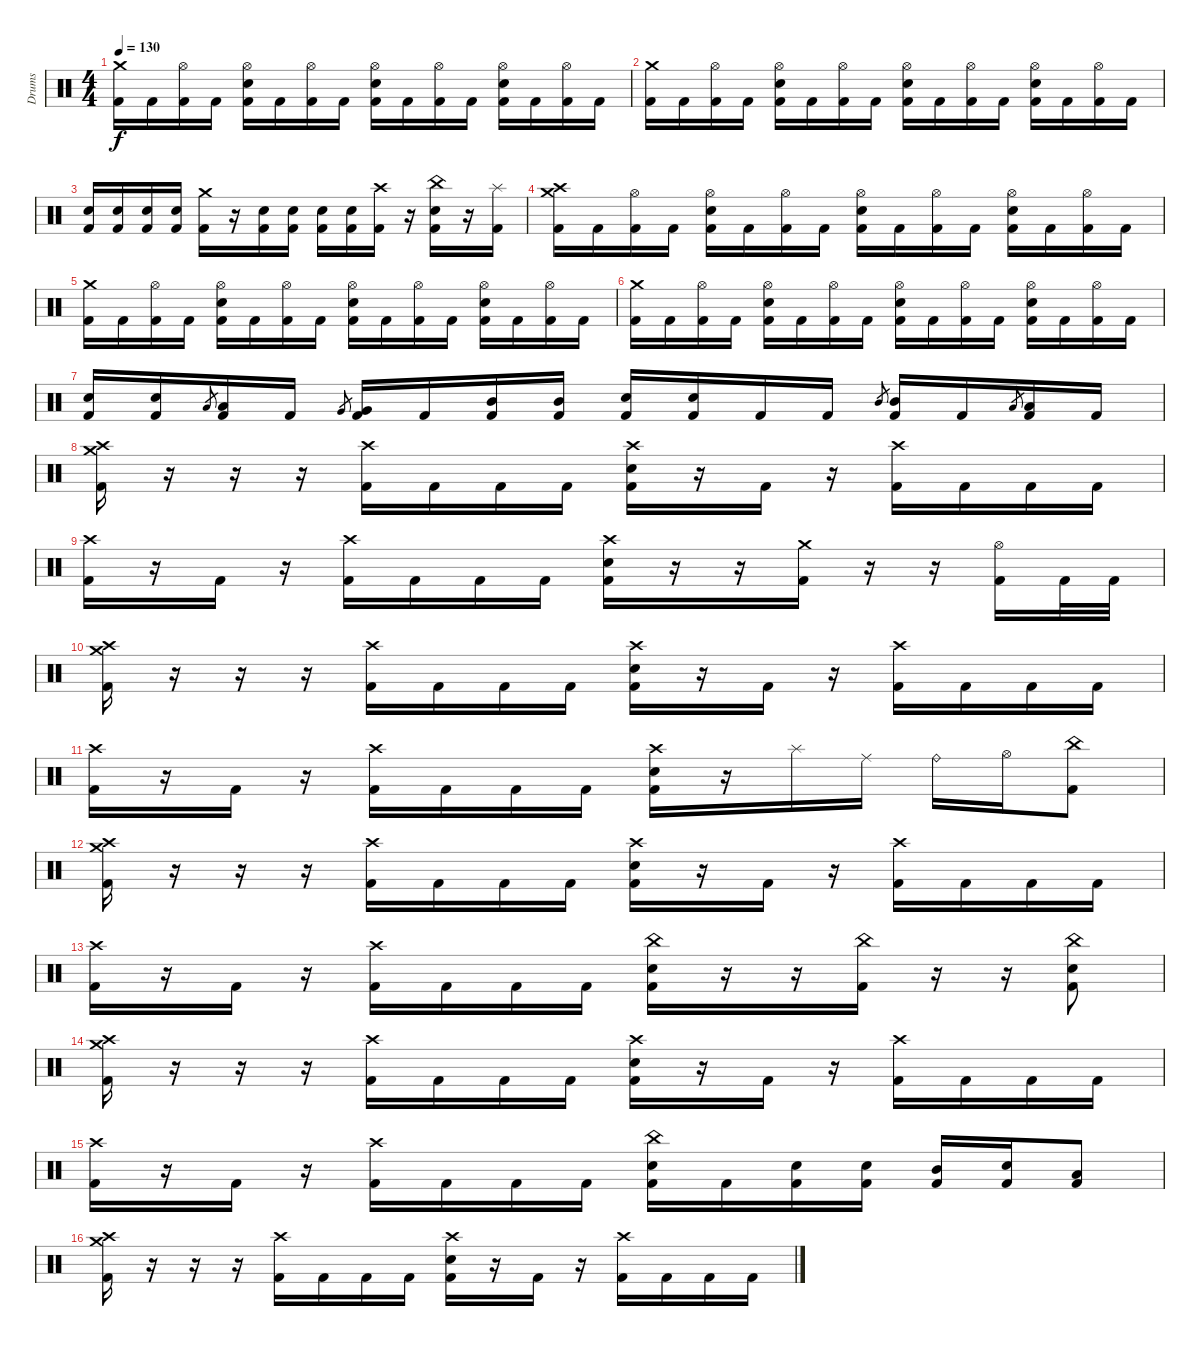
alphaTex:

\track ("Drums" "Drums") {instrument percussion}
\staff {score}
\articulation defaults
\ts (4 4)
\tempo 130
\clef neutral
\ks c
("Crash medium (hit)" "Kick (hit) 2").16{dy f} "Kick (hit) 2".16 ("Hi-Hat (open)" "Kick (hit) 2").16 "Kick (hit) 2".16 ("Hi-Hat (open)" "Electric Snare (hit)" "Kick (hit) 2").16 "Kick (hit) 2".16 ("Hi-Hat (open)" "Kick (hit) 2").16 "Kick (hit) 2".16 ("Hi-Hat (open)" "Electric Snare (hit)" "Kick (hit) 2").16 "Kick (hit) 2".16 ("Hi-Hat (open)" "Kick (hit) 2").16 "Kick (hit) 2".16 ("Hi-Hat (open)" "Electric Snare (hit)" "Kick (hit) 2").16 "Kick (hit) 2".16 ("Hi-Hat (open)" "Kick (hit) 2").16 "Kick (hit) 2".16 |
("Crash medium (hit)" "Kick (hit) 2").16 "Kick (hit) 2".16 ("Hi-Hat (open)" "Kick (hit) 2").16 "Kick (hit) 2".16 ("Hi-Hat (open)" "Electric Snare (hit)" "Kick (hit) 2").16 "Kick (hit) 2".16 ("Hi-Hat (open)" "Kick (hit) 2").16 "Kick (hit) 2".16 ("Hi-Hat (open)" "Electric Snare (hit)" "Kick (hit) 2").16 "Kick (hit) 2".16 ("Hi-Hat (open)" "Kick (hit) 2").16 "Kick (hit) 2".16 ("Hi-Hat (open)" "Electric Snare (hit)" "Kick (hit) 2").16 "Kick (hit) 2".16 ("Hi-Hat (open)" "Kick (hit) 2").16 "Kick (hit) 2".16 |
("Electric Snare (hit)" "Kick (hit) 2").16 ("Electric Snare (hit)" "Kick (hit) 2").16 ("Electric Snare (hit)" "Kick (hit) 2").16 ("Electric Snare (hit)" "Kick (hit) 2").16 ("Crash medium (hit)" "Kick (hit) 2").16 r.16 ("Electric Snare (hit)" "Kick (hit) 2").16 ("Electric Snare (hit)" "Kick (hit) 2").16 ("Electric Snare (hit)" "Kick (hit) 2").16 ("Electric Snare (hit)" "Kick (hit) 2").16 ("Crash high (hit)" "Kick (hit) 2").16 r.16 ("China (hit)" "Electric Snare (hit)" "Kick (hit) 2").16 r.16 ("Splash (hit)" "Kick (hit) 2").16 |
("Crash high (hit)" "Crash medium (hit)" "Kick (hit) 2").16 "Kick (hit) 2".16 ("Hi-Hat (open)" "Kick (hit) 2").16 "Kick (hit) 2".16 ("Hi-Hat (open)" "Electric Snare (hit)" "Kick (hit) 2").16 "Kick (hit) 2".16 ("Hi-Hat (open)" "Kick (hit) 2").16 "Kick (hit) 2".16 ("Hi-Hat (open)" "Electric Snare (hit)" "Kick (hit) 2").16 "Kick (hit) 2".16 ("Hi-Hat (open)" "Kick (hit) 2").16 "Kick (hit) 2".16 ("Hi-Hat (open)" "Electric Snare (hit)" "Kick (hit) 2").16 "Kick (hit) 2".16 ("Hi-Hat (open)" "Kick (hit) 2").16 "Kick (hit) 2".16 |
("Crash medium (hit)" "Kick (hit) 2").16 "Kick (hit) 2".16 ("Hi-Hat (open)" "Kick (hit) 2").16 "Kick (hit) 2".16 ("Hi-Hat (open)" "Electric Snare (hit)" "Kick (hit) 2").16 "Kick (hit) 2".16 ("Hi-Hat (open)" "Kick (hit) 2").16 "Kick (hit) 2".16 ("Hi-Hat (open)" "Electric Snare (hit)" "Kick (hit) 2").16 "Kick (hit) 2".16 ("Hi-Hat (open)" "Kick (hit) 2").16 "Kick (hit) 2".16 ("Hi-Hat (open)" "Electric Snare (hit)" "Kick (hit) 2").16 "Kick (hit) 2".16 ("Hi-Hat (open)" "Kick (hit) 2").16 "Kick (hit) 2".16 |
("Crash medium (hit)" "Kick (hit) 2").16 "Kick (hit) 2".16 ("Hi-Hat (open)" "Kick (hit) 2").16 "Kick (hit) 2".16 ("Hi-Hat (open)" "Electric Snare (hit)" "Kick (hit) 2").16 "Kick (hit) 2".16 ("Hi-Hat (open)" "Kick (hit) 2").16 "Kick (hit) 2".16 ("Hi-Hat (open)" "Electric Snare (hit)" "Kick (hit) 2").16 "Kick (hit) 2".16 ("Hi-Hat (open)" "Kick (hit) 2").16 "Kick (hit) 2".16 ("Hi-Hat (open)" "Electric Snare (hit)" "Kick (hit) 2").16 "Kick (hit) 2".16 ("Hi-Hat (open)" "Kick (hit) 2").16 "Kick (hit) 2".16 |
("Electric Snare (hit)" "Kick (hit) 2").16 ("Electric Snare (hit)" "Kick (hit) 2").16 "Low Tom (hit)".8{gr} ("Low Tom (hit)" "Kick (hit) 2").16 "Kick (hit) 2".16 "Very Low Tom (hit)".8{gr} ("Very Low Tom (hit)" "Kick (hit) 2").16 "Kick (hit) 2".16 ("Mid Tom (hit)" "Kick (hit) 2").16 ("Mid Tom (hit)" "Kick (hit) 2").16 ("Electric Snare (hit)" "Kick (hit) 2").16 ("Electric Snare (hit)" "Kick (hit) 2").16 "Kick (hit) 2".16 "Kick (hit) 2".16 "Mid Tom (hit)".8{gr} ("Mid Tom (hit)" "Kick (hit) 2").16 "Kick (hit) 2".16 "Low Tom (hit)".8{gr} ("Low Tom (hit)" "Kick (hit) 2").16 "Kick (hit) 2".16 |
("Crash high (hit)" "Crash medium (hit)" "Kick (hit) 2").16 r.16 r.16 r.16 ("Crash high (hit)" "Kick (hit) 2").16 "Kick (hit) 2".16 "Kick (hit) 2".16 "Kick (hit) 2".16 ("Crash high (hit)" "Electric Snare (hit)" "Kick (hit) 2").16 r.16 "Kick (hit) 2".16 r.16 ("Crash high (hit)" "Kick (hit) 2").16 "Kick (hit) 2".16 "Kick (hit) 2".16 "Kick (hit) 2".16 |
("Crash high (hit)" "Kick (hit) 2").16 r.16 "Kick (hit) 2".16 r.16 ("Crash high (hit)" "Kick (hit) 2").16 "Kick (hit) 2".16 "Kick (hit) 2".16 "Kick (hit) 2".16 ("Crash high (hit)" "Electric Snare (hit)" "Kick (hit) 2").16 r.16 r.16 ("Crash medium (hit)" "Kick (hit) 2").16 r.16 r.16 ("Hi-Hat (open)" "Kick (hit) 2").16 "Kick (hit) 2".32 "Kick (hit) 2".32 |
("Crash high (hit)" "Crash medium (hit)" "Kick (hit) 2").16 r.16 r.16 r.16 ("Crash high (hit)" "Kick (hit) 2").16 "Kick (hit) 2".16 "Kick (hit) 2".16 "Kick (hit) 2".16 ("Crash high (hit)" "Electric Snare (hit)" "Kick (hit) 2").16 r.16 "Kick (hit) 2".16 r.16 ("Crash high (hit)" "Kick (hit) 2").16 "Kick (hit) 2".16 "Kick (hit) 2".16 "Kick (hit) 2".16 |
("Crash high (hit)" "Kick (hit) 2").16 r.16 "Kick (hit) 2".16 r.16 ("Crash high (hit)" "Kick (hit) 2").16 "Kick (hit) 2".16 "Kick (hit) 2".16 "Kick (hit) 2".16 ("Crash high (hit)" "Electric Snare (hit)" "Kick (hit) 2").16 r.16 "Splash (hit)".16 "Ride (middle)".16 "Ride (bell)".16 "Hi-Hat (open)".16 ("China (hit)" "Kick (hit) 2").8 |
("Crash high (hit)" "Crash medium (hit)" "Kick (hit) 2").16 r.16 r.16 r.16 ("Crash high (hit)" "Kick (hit) 2").16 "Kick (hit) 2".16 "Kick (hit) 2".16 "Kick (hit) 2".16 ("Crash high (hit)" "Electric Snare (hit)" "Kick (hit) 2").16 r.16 "Kick (hit) 2".16 r.16 ("Crash high (hit)" "Kick (hit) 2").16 "Kick (hit) 2".16 "Kick (hit) 2".16 "Kick (hit) 2".16 |
("Crash high (hit)" "Kick (hit) 2").16 r.16 "Kick (hit) 2".16 r.16 ("Crash high (hit)" "Kick (hit) 2").16 "Kick (hit) 2".16 "Kick (hit) 2".16 "Kick (hit) 2".16 ("China (hit)" "Electric Snare (hit)" "Kick (hit) 2").16 r.16 r.16 ("China (hit)" "Kick (hit) 2").16 r.16 r.16 ("China (hit)" "Electric Snare (hit)" "Kick (hit) 2").8 |
("Crash high (hit)" "Crash medium (hit)" "Kick (hit) 2").16 r.16 r.16 r.16 ("Crash high (hit)" "Kick (hit) 2").16 "Kick (hit) 2".16 "Kick (hit) 2".16 "Kick (hit) 2".16 ("Crash high (hit)" "Electric Snare (hit)" "Kick (hit) 2").16 r.16 "Kick (hit) 2".16 r.16 ("Crash high (hit)" "Kick (hit) 2").16 "Kick (hit) 2".16 "Kick (hit) 2".16 "Kick (hit) 2".16 |
("Crash high (hit)" "Kick (hit) 2").16 r.16 "Kick (hit) 2".16 r.16 ("Crash high (hit)" "Kick (hit) 2").16 "Kick (hit) 2".16 "Kick (hit) 2".16 "Kick (hit) 2".16 ("China (hit)" "Electric Snare (hit)" "Kick (hit) 2").16 "Kick (hit) 2".16 ("Electric Snare (hit)" "Kick (hit) 2").16 ("Electric Snare (hit)" "Kick (hit) 2").16 ("Mid Tom (hit)" "Kick (hit) 2").16 ("Electric Snare (hit)" "Kick (hit) 2").16 ("Low Tom (hit)" "Kick (hit) 2").8 |
("Crash high (hit)" "Crash medium (hit)" "Kick (hit) 2").16 r.16 r.16 r.16 ("Crash high (hit)" "Kick (hit) 2").16 "Kick (hit) 2".16 "Kick (hit) 2".16 "Kick (hit) 2".16 ("Crash high (hit)" "Electric Snare (hit)" "Kick (hit) 2").16 r.16 "Kick (hit) 2".16 r.16 ("Crash high (hit)" "Kick (hit) 2").16 "Kick (hit) 2".16 "Kick (hit) 2".16 "Kick (hit) 2".16
